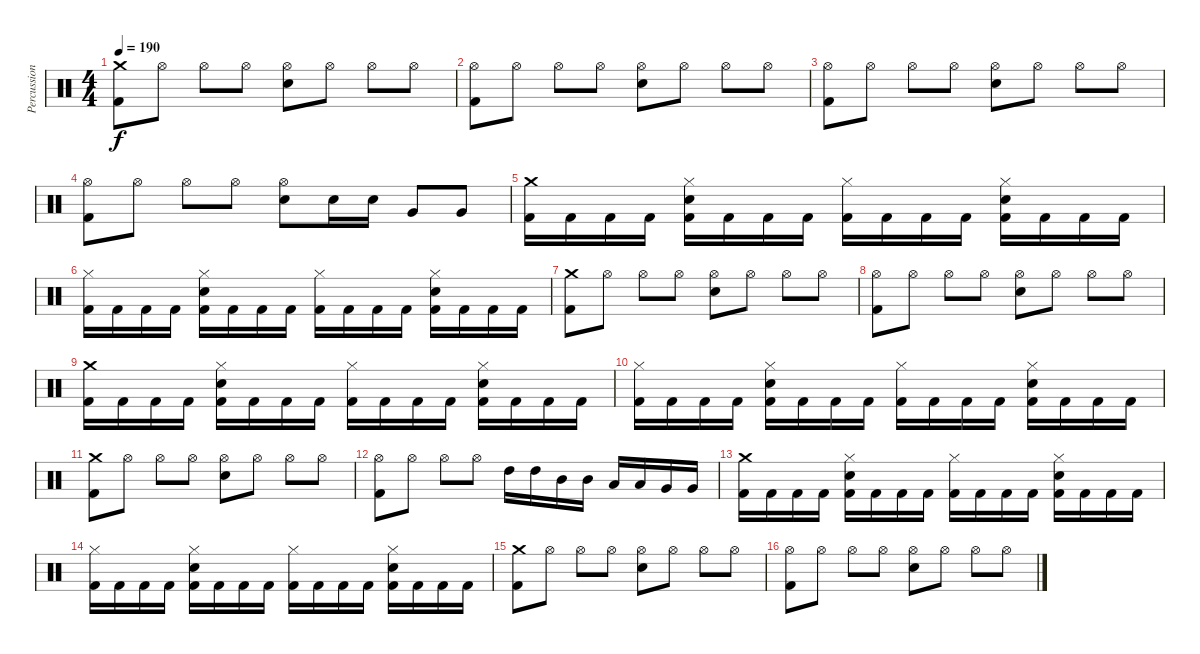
\track ("Percussions" "Percussion") {instrument percussion}
\staff {score}
\articulation defaults
\ts (4 4)
\tempo 190
\clef neutral
\ks c
("Crash medium (hit)" "Kick (hit) 2").8{dy f} "Hi-Hat (open)".8 "Hi-Hat (open)".8 "Hi-Hat (open)".8 ("Hi-Hat (open)" "Electric Snare (hit)").8 "Hi-Hat (open)".8 "Hi-Hat (open)".8 "Hi-Hat (open)".8 |
("Hi-Hat (open)" "Kick (hit) 2").8 "Hi-Hat (open)".8 "Hi-Hat (open)".8 "Hi-Hat (open)".8 ("Hi-Hat (open)" "Electric Snare (hit)").8 "Hi-Hat (open)".8 "Hi-Hat (open)".8 "Hi-Hat (open)".8 |
("Hi-Hat (open)" "Kick (hit) 2").8 "Hi-Hat (open)".8 "Hi-Hat (open)".8 "Hi-Hat (open)".8 ("Hi-Hat (open)" "Electric Snare (hit)").8 "Hi-Hat (open)".8 "Hi-Hat (open)".8 "Hi-Hat (open)".8 |
("Hi-Hat (open)" "Kick (hit) 2").8 "Hi-Hat (open)".8 "Hi-Hat (open)".8 "Hi-Hat (open)".8 ("Hi-Hat (open)" "Electric Snare (hit)").8 "Electric Snare (hit)".16 "Electric Snare (hit)".16 "Very Low Tom (hit)".8 "Very Low Tom (hit)".8 |
("Crash medium (hit)" "Kick (hit) 2").16 "Kick (hit) 2".16 "Kick (hit) 2".16 "Kick (hit) 2".16 ("Hi-Hat (closed)" "Electric Snare (hit)" "Kick (hit) 2").16 "Kick (hit) 2".16 "Kick (hit) 2".16 "Kick (hit) 2".16 ("Hi-Hat (closed)" "Kick (hit) 2").16 "Kick (hit) 2".16 "Kick (hit) 2".16 "Kick (hit) 2".16 ("Hi-Hat (closed)" "Electric Snare (hit)" "Kick (hit) 2").16 "Kick (hit) 2".16 "Kick (hit) 2".16 "Kick (hit) 2".16 |
("Hi-Hat (closed)" "Kick (hit) 2").16 "Kick (hit) 2".16 "Kick (hit) 2".16 "Kick (hit) 2".16 ("Hi-Hat (closed)" "Electric Snare (hit)" "Kick (hit) 2").16 "Kick (hit) 2".16 "Kick (hit) 2".16 "Kick (hit) 2".16 ("Hi-Hat (closed)" "Kick (hit) 2").16 "Kick (hit) 2".16 "Kick (hit) 2".16 "Kick (hit) 2".16 ("Hi-Hat (closed)" "Electric Snare (hit)" "Kick (hit) 2").16 "Kick (hit) 2".16 "Kick (hit) 2".16 "Kick (hit) 2".16 |
("Crash medium (hit)" "Kick (hit) 2").8 "Hi-Hat (open)".8 "Hi-Hat (open)".8 "Hi-Hat (open)".8 ("Hi-Hat (open)" "Electric Snare (hit)").8 "Hi-Hat (open)".8 "Hi-Hat (open)".8 "Hi-Hat (open)".8 |
("Hi-Hat (open)" "Kick (hit) 2").8 "Hi-Hat (open)".8 "Hi-Hat (open)".8 "Hi-Hat (open)".8 ("Hi-Hat (open)" "Electric Snare (hit)").8 "Hi-Hat (open)".8 "Hi-Hat (open)".8 "Hi-Hat (open)".8 |
("Crash medium (hit)" "Kick (hit) 2").16 "Kick (hit) 2".16 "Kick (hit) 2".16 "Kick (hit) 2".16 ("Hi-Hat (closed)" "Electric Snare (hit)" "Kick (hit) 2").16 "Kick (hit) 2".16 "Kick (hit) 2".16 "Kick (hit) 2".16 ("Hi-Hat (closed)" "Kick (hit) 2").16 "Kick (hit) 2".16 "Kick (hit) 2".16 "Kick (hit) 2".16 ("Hi-Hat (closed)" "Electric Snare (hit)" "Kick (hit) 2").16 "Kick (hit) 2".16 "Kick (hit) 2".16 "Kick (hit) 2".16 |
("Hi-Hat (closed)" "Kick (hit) 2").16 "Kick (hit) 2".16 "Kick (hit) 2".16 "Kick (hit) 2".16 ("Hi-Hat (closed)" "Electric Snare (hit)" "Kick (hit) 2").16 "Kick (hit) 2".16 "Kick (hit) 2".16 "Kick (hit) 2".16 ("Hi-Hat (closed)" "Kick (hit) 2").16 "Kick (hit) 2".16 "Kick (hit) 2".16 "Kick (hit) 2".16 ("Hi-Hat (closed)" "Electric Snare (hit)" "Kick (hit) 2").16 "Kick (hit) 2".16 "Kick (hit) 2".16 "Kick (hit) 2".16 |
("Crash medium (hit)" "Kick (hit) 2").8 "Hi-Hat (open)".8 "Hi-Hat (open)".8 "Hi-Hat (open)".8 ("Hi-Hat (open)" "Electric Snare (hit)").8 "Hi-Hat (open)".8 "Hi-Hat (open)".8 "Hi-Hat (open)".8 |
("Hi-Hat (open)" "Kick (hit) 2").8 "Hi-Hat (open)".8 "Hi-Hat (open)".8 "Hi-Hat (open)".8 "High Tom (hit)".16 "High Tom (hit)".16 "Mid Tom (hit)".16 "Mid Tom (hit)".16 "Low Tom (hit)".16 "Low Tom (hit)".16 "Very Low Tom (hit)".16 "Very Low Tom (hit)".16 |
("Crash medium (hit)" "Kick (hit) 2").16 "Kick (hit) 2".16 "Kick (hit) 2".16 "Kick (hit) 2".16 ("Hi-Hat (closed)" "Electric Snare (hit)" "Kick (hit) 2").16 "Kick (hit) 2".16 "Kick (hit) 2".16 "Kick (hit) 2".16 ("Hi-Hat (closed)" "Kick (hit) 2").16 "Kick (hit) 2".16 "Kick (hit) 2".16 "Kick (hit) 2".16 ("Hi-Hat (closed)" "Electric Snare (hit)" "Kick (hit) 2").16 "Kick (hit) 2".16 "Kick (hit) 2".16 "Kick (hit) 2".16 |
("Hi-Hat (closed)" "Kick (hit) 2").16 "Kick (hit) 2".16 "Kick (hit) 2".16 "Kick (hit) 2".16 ("Hi-Hat (closed)" "Electric Snare (hit)" "Kick (hit) 2").16 "Kick (hit) 2".16 "Kick (hit) 2".16 "Kick (hit) 2".16 ("Hi-Hat (closed)" "Kick (hit) 2").16 "Kick (hit) 2".16 "Kick (hit) 2".16 "Kick (hit) 2".16 ("Hi-Hat (closed)" "Electric Snare (hit)" "Kick (hit) 2").16 "Kick (hit) 2".16 "Kick (hit) 2".16 "Kick (hit) 2".16 |
("Crash medium (hit)" "Kick (hit) 2").8 "Hi-Hat (open)".8 "Hi-Hat (open)".8 "Hi-Hat (open)".8 ("Hi-Hat (open)" "Electric Snare (hit)").8 "Hi-Hat (open)".8 "Hi-Hat (open)".8 "Hi-Hat (open)".8 |
("Hi-Hat (open)" "Kick (hit) 2").8 "Hi-Hat (open)".8 "Hi-Hat (open)".8 "Hi-Hat (open)".8 ("Hi-Hat (open)" "Electric Snare (hit)").8 "Hi-Hat (open)".8 "Hi-Hat (open)".8 "Hi-Hat (open)".8
